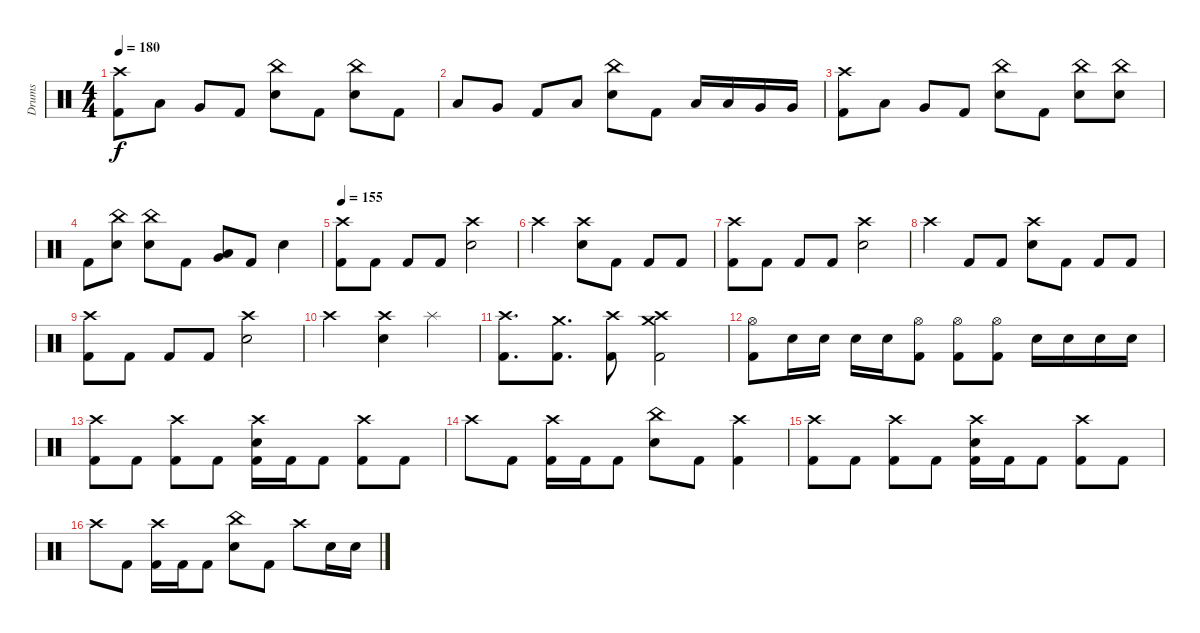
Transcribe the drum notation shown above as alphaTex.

\track ("Drums" "Drums") {instrument percussion}
\staff {score}
\articulation defaults
\ts (4 4)
\tempo 180
\clef neutral
\ks c
("Crash high (hit)" "Kick (hit) 2").8{dy f} "Low Tom (hit)".8 "Very Low Tom (hit)".8 "Kick (hit) 2".8 ("China (hit)" "Electric Snare (hit)").8 "Kick (hit) 2".8 ("China (hit)" "Electric Snare (hit)").8 "Kick (hit) 2".8 |
"Low Tom (hit)".8 "Very Low Tom (hit)".8 "Kick (hit) 2".8 "Low Floor Tom (hit)".8 ("China (hit)" "Electric Snare (hit)").8 "Kick (hit) 2".8 "Low Tom (hit)".16 "Low Tom (hit)".16 "Very Low Tom (hit)".16 "Very Low Tom (hit)".16 |
("Crash high (hit)" "Kick (hit) 2").8 "Low Tom (hit)".8 "Very Low Tom (hit)".8 "Kick (hit) 2".8 ("China (hit)" "Electric Snare (hit)").8 "Kick (hit) 2".8 ("China (hit)" "Electric Snare (hit)").8 ("China (hit)" "Electric Snare (hit)").8 |
"Kick (hit) 2".8 ("China (hit)" "Electric Snare (hit)").8 ("China (hit)" "Electric Snare (hit)").8 "Kick (hit) 2".8 ("Low Tom (hit)" "Very Low Tom (hit)").8 "Kick (hit) 2".8 "Electric Snare (hit)".4 |
\tempo 155
("Crash high (hit)" "Kick (hit) 2").8 "Kick (hit) 2".8 "Kick (hit) 2".8 "Kick (hit) 2".8 ("Crash high (hit)" "Electric Snare (hit)").2 |
"Crash high (hit)".2 ("Crash high (hit)" "Electric Snare (hit)").8 "Kick (hit) 2".8 "Kick (hit) 2".8 "Kick (hit) 2".8 |
("Crash high (hit)" "Kick (hit) 2").8 "Kick (hit) 2".8 "Kick (hit) 2".8 "Kick (hit) 2".8 ("Crash high (hit)" "Electric Snare (hit)").2 |
"Crash high (hit)".4 "Kick (hit) 2".8 "Kick (hit) 2".8 ("Crash high (hit)" "Electric Snare (hit)").8 "Kick (hit) 2".8 "Kick (hit) 2".8 "Kick (hit) 2".8 |
("Crash high (hit)" "Kick (hit) 2").8 "Kick (hit) 2".8 "Kick (hit) 2".8 "Kick (hit) 2".8 ("Crash high (hit)" "Electric Snare (hit)").2 |
"Crash high (hit)".2 ("Crash high (hit)" "Electric Snare (hit)").4 "Splash (hit)".4 |
("Crash high (hit)" "Kick (hit) 2").8{d} ("Crash medium (hit)" "Kick (hit) 2").8{d} ("Crash high (hit)" "Kick (hit) 2").8 ("Crash high (hit)" "Crash medium (hit)" "Kick (hit) 2").2 |
("Hi-Hat (open)" "Kick (hit) 2").8 "Electric Snare (hit)".16 "Electric Snare (hit)".16 "Electric Snare (hit)".16 "Electric Snare (hit)".16 ("Hi-Hat (open)" "Kick (hit) 2").8 ("Hi-Hat (open)" "Kick (hit) 2").8 ("Hi-Hat (open)" "Kick (hit) 2").8 "Electric Snare (hit)".16 "Electric Snare (hit)".16 "Electric Snare (hit)".16 "Electric Snare (hit)".16 |
("Crash high (hit)" "Kick (hit) 2").8 "Kick (hit) 2".8 ("Crash high (hit)" "Kick (hit) 2").8 "Kick (hit) 2".8 ("Crash high (hit)" "Electric Snare (hit)" "Kick (hit) 2").16 "Kick (hit) 2".16 "Kick (hit) 2".8 ("Crash high (hit)" "Kick (hit) 2").8 "Kick (hit) 2".8 |
"Crash high (hit)".8 "Kick (hit) 2".8 ("Crash high (hit)" "Kick (hit) 2").16 "Kick (hit) 2".16 "Kick (hit) 2".8 ("China (hit)" "Electric Snare (hit)").8 "Kick (hit) 2".8 ("Crash high (hit)" "Kick (hit) 2").4 |
("Crash high (hit)" "Kick (hit) 2").8 "Kick (hit) 2".8 ("Crash high (hit)" "Kick (hit) 2").8 "Kick (hit) 2".8 ("Crash high (hit)" "Electric Snare (hit)" "Kick (hit) 2").16 "Kick (hit) 2".16 "Kick (hit) 2".8 ("Crash high (hit)" "Kick (hit) 2").8 "Kick (hit) 2".8 |
"Crash high (hit)".8 "Kick (hit) 2".8 ("Crash high (hit)" "Kick (hit) 2").16 "Kick (hit) 2".16 "Kick (hit) 2".8 ("China (hit)" "Electric Snare (hit)").8 "Kick (hit) 2".8 "Crash high (hit)".8 "Electric Snare (hit)".16 "Electric Snare (hit)".16
